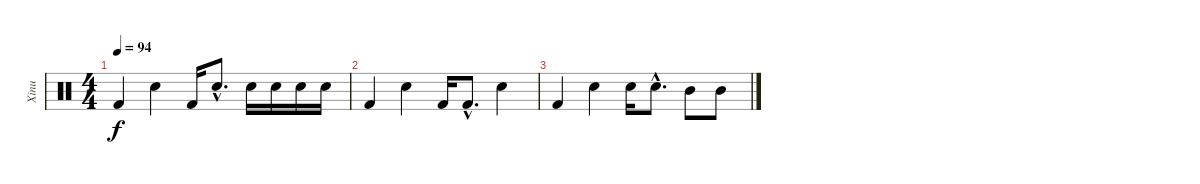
\track ("Xinu" "Xinu") {instrument percussion}
\staff {score}
\articulation defaults
\ts (4 4)
\tempo 94
\clef neutral
\ks c "Kick (hit) 2".4{dy f} "Snare (hit) 2".4 "Kick (hit) 2".16 "Snare (hit) 2"{hac}.8{d} "Snare (hit) 2".16 "Snare (hit) 2".16 "Snare (hit) 2".16 "Snare (hit) 2".16
|
"Kick (hit) 2".4 "Snare (hit) 2".4 "Kick (hit) 2".16 "Kick (hit) 2"{hac}.8{d} "Snare (hit) 2".4 |
"Kick (hit) 2".4 "Snare (hit) 2".4 "Snare (hit) 2".16 "Snare (hit) 2"{hac}.8{d} "Mid Tom (hit)".8 "Mid Tom (hit)".8
